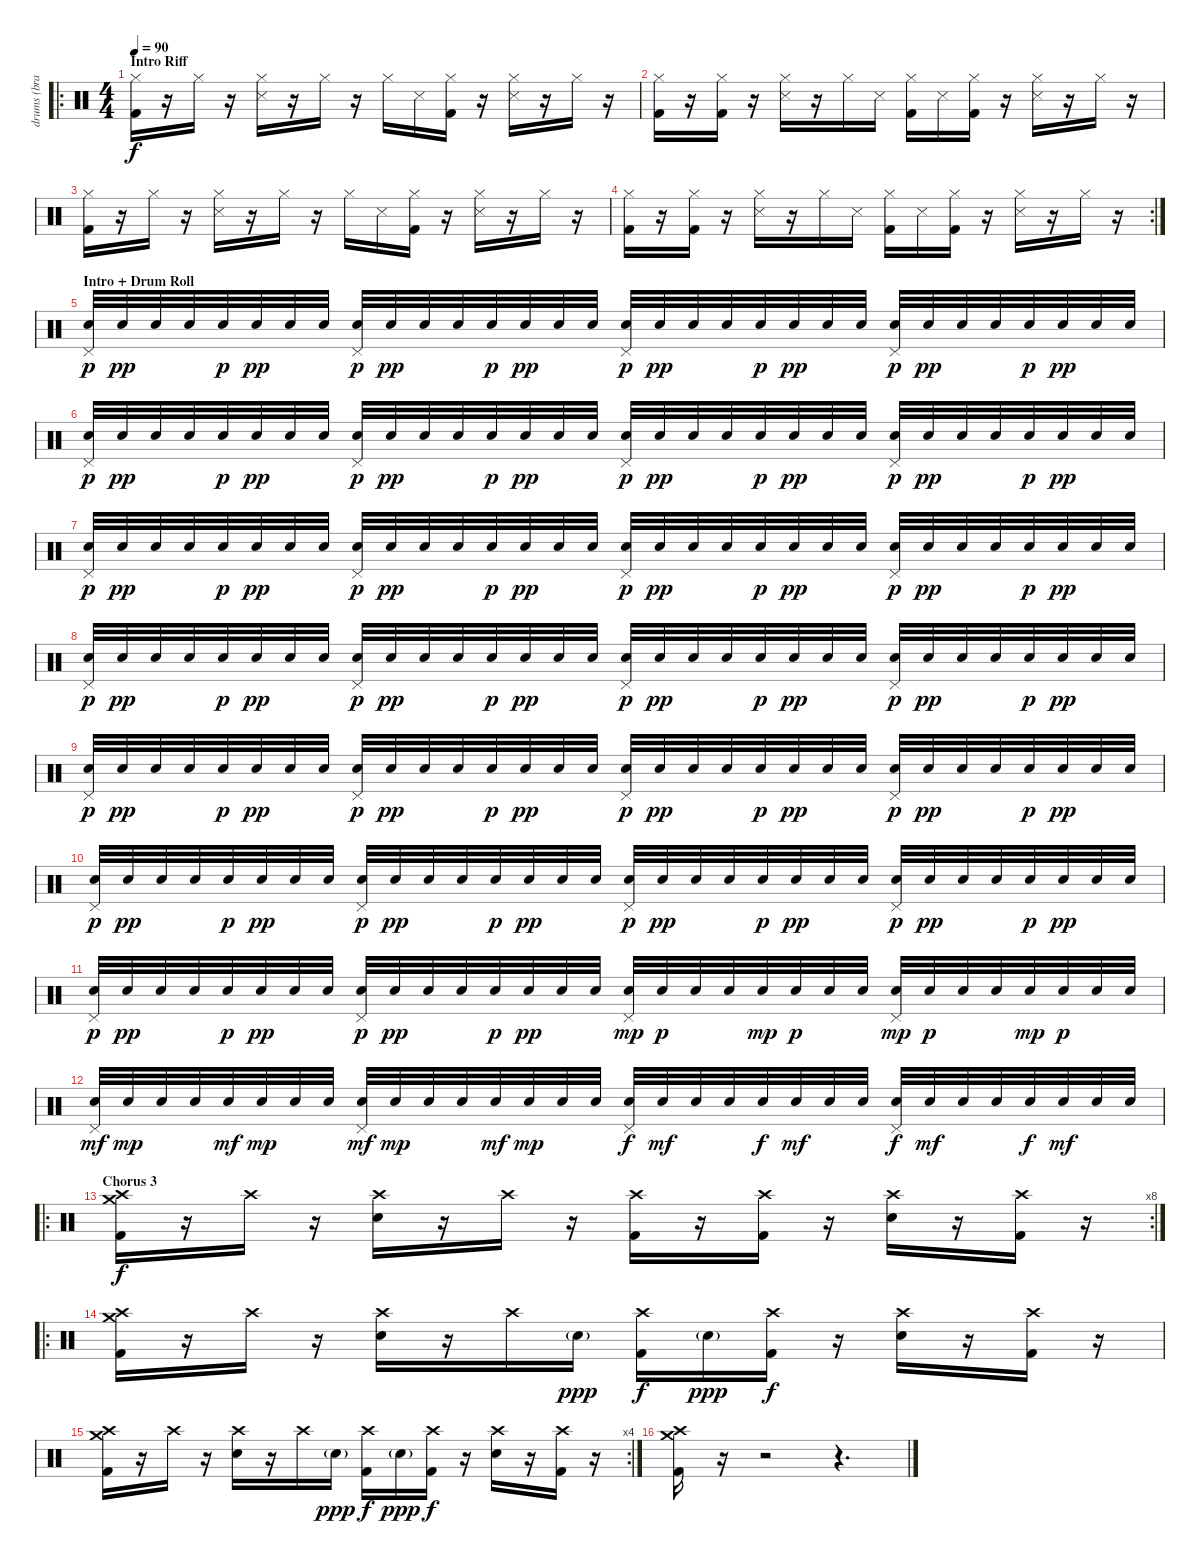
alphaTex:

\track ("drums (brad wilk)" "drums (bra") {instrument percussion}
\staff {score}
\articulation defaults
\ro
\ts (4 4)
\section ("" "Intro Riff")
\tempo 90
\clef neutral
\ks c
("Hi-Hat (closed)" "Kick (hit) 2").16{dy f} r.16 "Hi-Hat (closed)".16 r.16 ("Hi-Hat (closed)" "Snare (side stick) 3").16 r.16 "Hi-Hat (closed)".16 r.16 "Hi-Hat (closed)".16 "Snare (side stick) 3".16 ("Hi-Hat (closed)" "Kick (hit) 2").16 r.16 ("Hi-Hat (closed)" "Snare (side stick) 3").16 r.16 "Hi-Hat (closed)".16 r.16 |
("Hi-Hat (closed)" "Kick (hit) 2").16 r.16 ("Hi-Hat (closed)" "Kick (hit) 2").16 r.16 ("Hi-Hat (closed)" "Snare (side stick) 3").16 r.16 "Hi-Hat (closed)".16 "Snare (side stick) 3".16 ("Hi-Hat (closed)" "Kick (hit) 2").16 "Snare (side stick) 3".16 ("Hi-Hat (closed)" "Kick (hit) 2").16 r.16 ("Hi-Hat (closed)" "Snare (side stick) 3").16 r.16 "Hi-Hat (closed)".16 r.16 |
("Hi-Hat (closed)" "Kick (hit) 2").16 r.16 "Hi-Hat (closed)".16 r.16 ("Hi-Hat (closed)" "Snare (side stick) 3").16 r.16 "Hi-Hat (closed)".16 r.16 "Hi-Hat (closed)".16 "Snare (side stick) 3".16 ("Hi-Hat (closed)" "Kick (hit) 2").16 r.16 ("Hi-Hat (closed)" "Snare (side stick) 3").16 r.16 "Hi-Hat (closed)".16 r.16 |
\rc 2
("Hi-Hat (closed)" "Kick (hit) 2").16 r.16 ("Hi-Hat (closed)" "Kick (hit) 2").16 r.16 ("Hi-Hat (closed)" "Snare (side stick) 3").16 r.16 "Hi-Hat (closed)".16 "Snare (side stick) 3".16 ("Hi-Hat (closed)" "Kick (hit) 2").16 "Snare (side stick) 3".16 ("Hi-Hat (closed)" "Kick (hit) 2").16 r.16 ("Hi-Hat (closed)" "Snare (side stick) 3").16 r.16 "Hi-Hat (closed)".16 r.16 |
\section ("" "Intro + Drum Roll")
("Pedal Hi-Hat (hit)" "Electric Snare (hit)").32{dy p} "Electric Snare (hit)".32{dy pp} "Electric Snare (hit)".32 "Electric Snare (hit)".32 "Electric Snare (hit)".32{dy p} "Electric Snare (hit)".32{dy pp} "Electric Snare (hit)".32 "Electric Snare (hit)".32 ("Pedal Hi-Hat (hit)" "Electric Snare (hit)").32{dy p} "Electric Snare (hit)".32{dy pp} "Electric Snare (hit)".32 "Electric Snare (hit)".32 "Electric Snare (hit)".32{dy p} "Electric Snare (hit)".32{dy pp} "Electric Snare (hit)".32 "Electric Snare (hit)".32 ("Pedal Hi-Hat (hit)" "Electric Snare (hit)").32{dy p} "Electric Snare (hit)".32{dy pp} "Electric Snare (hit)".32 "Electric Snare (hit)".32 "Electric Snare (hit)".32{dy p} "Electric Snare (hit)".32{dy pp} "Electric Snare (hit)".32 "Electric Snare (hit)".32 ("Pedal Hi-Hat (hit)" "Electric Snare (hit)").32{dy p} "Electric Snare (hit)".32{dy pp} "Electric Snare (hit)".32 "Electric Snare (hit)".32 "Electric Snare (hit)".32{dy p} "Electric Snare (hit)".32{dy pp} "Electric Snare (hit)".32 "Electric Snare (hit)".32 |
("Pedal Hi-Hat (hit)" "Electric Snare (hit)").32{dy p} "Electric Snare (hit)".32{dy pp} "Electric Snare (hit)".32 "Electric Snare (hit)".32 "Electric Snare (hit)".32{dy p} "Electric Snare (hit)".32{dy pp} "Electric Snare (hit)".32 "Electric Snare (hit)".32 ("Pedal Hi-Hat (hit)" "Electric Snare (hit)").32{dy p} "Electric Snare (hit)".32{dy pp} "Electric Snare (hit)".32 "Electric Snare (hit)".32 "Electric Snare (hit)".32{dy p} "Electric Snare (hit)".32{dy pp} "Electric Snare (hit)".32 "Electric Snare (hit)".32 ("Pedal Hi-Hat (hit)" "Electric Snare (hit)").32{dy p} "Electric Snare (hit)".32{dy pp} "Electric Snare (hit)".32 "Electric Snare (hit)".32 "Electric Snare (hit)".32{dy p} "Electric Snare (hit)".32{dy pp} "Electric Snare (hit)".32 "Electric Snare (hit)".32 ("Pedal Hi-Hat (hit)" "Electric Snare (hit)").32{dy p} "Electric Snare (hit)".32{dy pp} "Electric Snare (hit)".32 "Electric Snare (hit)".32 "Electric Snare (hit)".32{dy p} "Electric Snare (hit)".32{dy pp} "Electric Snare (hit)".32 "Electric Snare (hit)".32 |
("Pedal Hi-Hat (hit)" "Electric Snare (hit)").32{dy p} "Electric Snare (hit)".32{dy pp} "Electric Snare (hit)".32 "Electric Snare (hit)".32 "Electric Snare (hit)".32{dy p} "Electric Snare (hit)".32{dy pp} "Electric Snare (hit)".32 "Electric Snare (hit)".32 ("Pedal Hi-Hat (hit)" "Electric Snare (hit)").32{dy p} "Electric Snare (hit)".32{dy pp} "Electric Snare (hit)".32 "Electric Snare (hit)".32 "Electric Snare (hit)".32{dy p} "Electric Snare (hit)".32{dy pp} "Electric Snare (hit)".32 "Electric Snare (hit)".32 ("Pedal Hi-Hat (hit)" "Electric Snare (hit)").32{dy p} "Electric Snare (hit)".32{dy pp} "Electric Snare (hit)".32 "Electric Snare (hit)".32 "Electric Snare (hit)".32{dy p} "Electric Snare (hit)".32{dy pp} "Electric Snare (hit)".32 "Electric Snare (hit)".32 ("Pedal Hi-Hat (hit)" "Electric Snare (hit)").32{dy p} "Electric Snare (hit)".32{dy pp} "Electric Snare (hit)".32 "Electric Snare (hit)".32 "Electric Snare (hit)".32{dy p} "Electric Snare (hit)".32{dy pp} "Electric Snare (hit)".32 "Electric Snare (hit)".32 |
("Pedal Hi-Hat (hit)" "Electric Snare (hit)").32{dy p} "Electric Snare (hit)".32{dy pp} "Electric Snare (hit)".32 "Electric Snare (hit)".32 "Electric Snare (hit)".32{dy p} "Electric Snare (hit)".32{dy pp} "Electric Snare (hit)".32 "Electric Snare (hit)".32 ("Pedal Hi-Hat (hit)" "Electric Snare (hit)").32{dy p} "Electric Snare (hit)".32{dy pp} "Electric Snare (hit)".32 "Electric Snare (hit)".32 "Electric Snare (hit)".32{dy p} "Electric Snare (hit)".32{dy pp} "Electric Snare (hit)".32 "Electric Snare (hit)".32 ("Pedal Hi-Hat (hit)" "Electric Snare (hit)").32{dy p} "Electric Snare (hit)".32{dy pp} "Electric Snare (hit)".32 "Electric Snare (hit)".32 "Electric Snare (hit)".32{dy p} "Electric Snare (hit)".32{dy pp} "Electric Snare (hit)".32 "Electric Snare (hit)".32 ("Pedal Hi-Hat (hit)" "Electric Snare (hit)").32{dy p} "Electric Snare (hit)".32{dy pp} "Electric Snare (hit)".32 "Electric Snare (hit)".32 "Electric Snare (hit)".32{dy p} "Electric Snare (hit)".32{dy pp} "Electric Snare (hit)".32 "Electric Snare (hit)".32 |
("Pedal Hi-Hat (hit)" "Electric Snare (hit)").32{dy p} "Electric Snare (hit)".32{dy pp} "Electric Snare (hit)".32 "Electric Snare (hit)".32 "Electric Snare (hit)".32{dy p} "Electric Snare (hit)".32{dy pp} "Electric Snare (hit)".32 "Electric Snare (hit)".32 ("Pedal Hi-Hat (hit)" "Electric Snare (hit)").32{dy p} "Electric Snare (hit)".32{dy pp} "Electric Snare (hit)".32 "Electric Snare (hit)".32 "Electric Snare (hit)".32{dy p} "Electric Snare (hit)".32{dy pp} "Electric Snare (hit)".32 "Electric Snare (hit)".32 ("Pedal Hi-Hat (hit)" "Electric Snare (hit)").32{dy p} "Electric Snare (hit)".32{dy pp} "Electric Snare (hit)".32 "Electric Snare (hit)".32 "Electric Snare (hit)".32{dy p} "Electric Snare (hit)".32{dy pp} "Electric Snare (hit)".32 "Electric Snare (hit)".32 ("Pedal Hi-Hat (hit)" "Electric Snare (hit)").32{dy p} "Electric Snare (hit)".32{dy pp} "Electric Snare (hit)".32 "Electric Snare (hit)".32 "Electric Snare (hit)".32{dy p} "Electric Snare (hit)".32{dy pp} "Electric Snare (hit)".32 "Electric Snare (hit)".32 |
("Pedal Hi-Hat (hit)" "Electric Snare (hit)").32{dy p} "Electric Snare (hit)".32{dy pp} "Electric Snare (hit)".32 "Electric Snare (hit)".32 "Electric Snare (hit)".32{dy p} "Electric Snare (hit)".32{dy pp} "Electric Snare (hit)".32 "Electric Snare (hit)".32 ("Pedal Hi-Hat (hit)" "Electric Snare (hit)").32{dy p} "Electric Snare (hit)".32{dy pp} "Electric Snare (hit)".32 "Electric Snare (hit)".32 "Electric Snare (hit)".32{dy p} "Electric Snare (hit)".32{dy pp} "Electric Snare (hit)".32 "Electric Snare (hit)".32 ("Pedal Hi-Hat (hit)" "Electric Snare (hit)").32{dy p} "Electric Snare (hit)".32{dy pp} "Electric Snare (hit)".32 "Electric Snare (hit)".32 "Electric Snare (hit)".32{dy p} "Electric Snare (hit)".32{dy pp} "Electric Snare (hit)".32 "Electric Snare (hit)".32 ("Pedal Hi-Hat (hit)" "Electric Snare (hit)").32{dy p} "Electric Snare (hit)".32{dy pp} "Electric Snare (hit)".32 "Electric Snare (hit)".32 "Electric Snare (hit)".32{dy p} "Electric Snare (hit)".32{dy pp} "Electric Snare (hit)".32 "Electric Snare (hit)".32 |
("Pedal Hi-Hat (hit)" "Electric Snare (hit)").32{dy p} "Electric Snare (hit)".32{dy pp} "Electric Snare (hit)".32 "Electric Snare (hit)".32 "Electric Snare (hit)".32{dy p} "Electric Snare (hit)".32{dy pp} "Electric Snare (hit)".32 "Electric Snare (hit)".32 ("Pedal Hi-Hat (hit)" "Electric Snare (hit)").32{dy p} "Electric Snare (hit)".32{dy pp} "Electric Snare (hit)".32 "Electric Snare (hit)".32 "Electric Snare (hit)".32{dy p} "Electric Snare (hit)".32{dy pp} "Electric Snare (hit)".32 "Electric Snare (hit)".32 ("Pedal Hi-Hat (hit)" "Electric Snare (hit)").32{dy mp} "Electric Snare (hit)".32{dy p} "Electric Snare (hit)".32 "Electric Snare (hit)".32 "Electric Snare (hit)".32{dy mp} "Electric Snare (hit)".32{dy p} "Electric Snare (hit)".32 "Electric Snare (hit)".32 ("Pedal Hi-Hat (hit)" "Electric Snare (hit)").32{dy mp} "Electric Snare (hit)".32{dy p} "Electric Snare (hit)".32 "Electric Snare (hit)".32 "Electric Snare (hit)".32{dy mp} "Electric Snare (hit)".32{dy p} "Electric Snare (hit)".32 "Electric Snare (hit)".32 |
("Pedal Hi-Hat (hit)" "Electric Snare (hit)").32{dy mf} "Electric Snare (hit)".32{dy mp} "Electric Snare (hit)".32 "Electric Snare (hit)".32 "Electric Snare (hit)".32{dy mf} "Electric Snare (hit)".32{dy mp} "Electric Snare (hit)".32 "Electric Snare (hit)".32 ("Pedal Hi-Hat (hit)" "Electric Snare (hit)").32{dy mf} "Electric Snare (hit)".32{dy mp} "Electric Snare (hit)".32 "Electric Snare (hit)".32 "Electric Snare (hit)".32{dy mf} "Electric Snare (hit)".32{dy mp} "Electric Snare (hit)".32 "Electric Snare (hit)".32 ("Pedal Hi-Hat (hit)" "Electric Snare (hit)").32{dy f} "Electric Snare (hit)".32{dy mf} "Electric Snare (hit)".32 "Electric Snare (hit)".32 "Electric Snare (hit)".32{dy f} "Electric Snare (hit)".32{dy mf} "Electric Snare (hit)".32 "Electric Snare (hit)".32 ("Pedal Hi-Hat (hit)" "Electric Snare (hit)").32{dy f} "Electric Snare (hit)".32{dy mf} "Electric Snare (hit)".32 "Electric Snare (hit)".32 "Electric Snare (hit)".32{dy f} "Electric Snare (hit)".32{dy mf} "Electric Snare (hit)".32 "Electric Snare (hit)".32 |
\ro
\rc 8
\section ("" "Chorus 3")
("Crash medium (hit)" "Crash high (hit)" "Kick (hit) 2").16{dy f} r.16 "Crash high (hit)".16 r.16 ("Crash high (hit)" "Electric Snare (hit)").16 r.16 "Crash high (hit)".16 r.16 ("Crash high (hit)" "Kick (hit) 2").16 r.16 ("Crash high (hit)" "Kick (hit) 2").16 r.16 ("Crash high (hit)" "Electric Snare (hit)").16 r.16 ("Crash high (hit)" "Kick (hit) 2").16 r.16 |
\ro
("Crash medium (hit)" "Crash high (hit)" "Kick (hit) 2").16 r.16 "Crash high (hit)".16 r.16 ("Crash high (hit)" "Electric Snare (hit)").16 r.16 "Crash high (hit)".16 "Electric Snare (hit)"{g}.16{dy ppp} ("Crash high (hit)" "Kick (hit) 2").16{dy f} "Electric Snare (hit)"{g}.16{dy ppp} ("Crash high (hit)" "Kick (hit) 2").16{dy f} r.16 ("Crash high (hit)" "Electric Snare (hit)").16 r.16 ("Crash high (hit)" "Kick (hit) 2").16 r.16 |
\rc 4
("Crash medium (hit)" "Crash high (hit)" "Kick (hit) 2").16 r.16 "Crash high (hit)".16 r.16 ("Crash high (hit)" "Electric Snare (hit)").16 r.16 "Crash high (hit)".16 "Electric Snare (hit)"{g}.16{dy ppp} ("Crash high (hit)" "Kick (hit) 2").16{dy f} "Electric Snare (hit)"{g}.16{dy ppp} ("Crash high (hit)" "Kick (hit) 2").16{dy f} r.16 ("Crash high (hit)" "Electric Snare (hit)").16 r.16 ("Crash high (hit)" "Kick (hit) 2").16 r.16 |
("Crash medium (hit)" "Crash high (hit)" "Kick (hit) 2").16 r.16 r.2 r.4{d}
